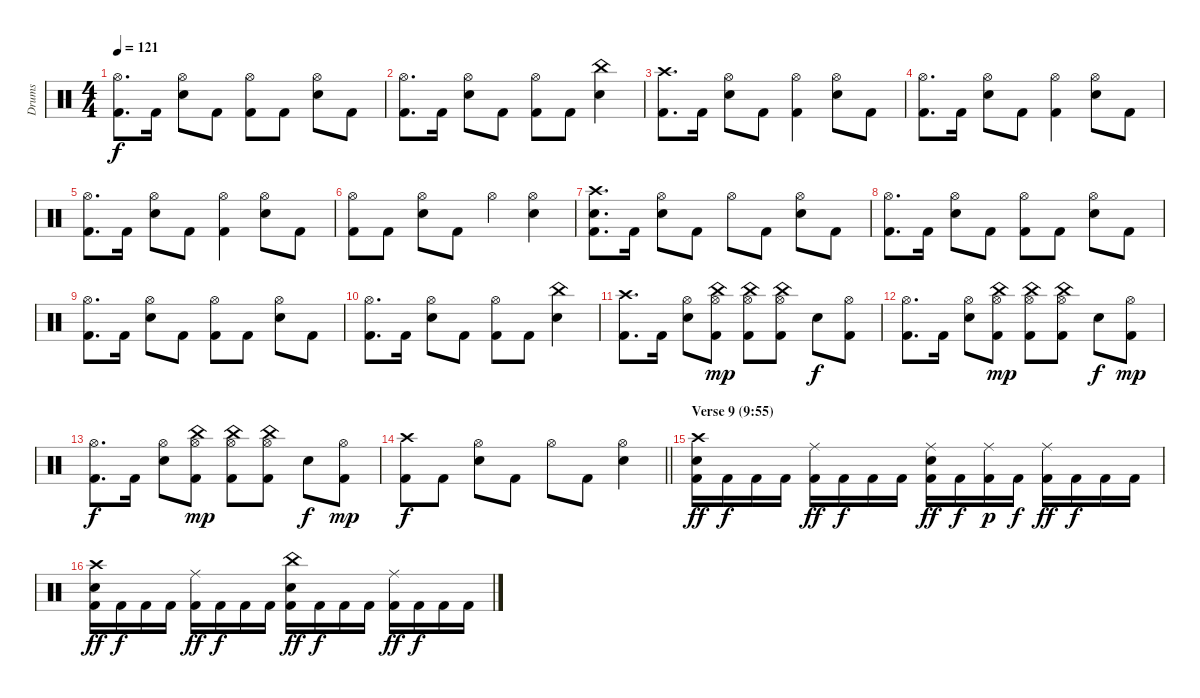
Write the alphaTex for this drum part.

\track ("Drums" "Drums") {instrument percussion}
\staff {score}
\articulation defaults
\ts (4 4)
\tempo 121
\clef neutral
\ks c
("Hi-Hat (open)" "Kick (hit) 2").8{d dy f} "Kick (hit) 2".16 ("Hi-Hat (open)" "Electric Snare (hit)").8 "Kick (hit) 2".8 ("Hi-Hat (open)" "Kick (hit) 2").8 "Kick (hit) 2".8 ("Hi-Hat (open)" "Electric Snare (hit)").8 "Kick (hit) 2".8 |
("Hi-Hat (open)" "Kick (hit) 2").8{d} "Kick (hit) 2".16 ("Hi-Hat (open)" "Electric Snare (hit)").8 "Kick (hit) 2".8 ("Hi-Hat (open)" "Kick (hit) 2").8 "Kick (hit) 2".8 ("China (hit)" "Electric Snare (hit)").4 |
("Crash high (hit)" "Kick (hit) 2").8{d} "Kick (hit) 2".16 ("Hi-Hat (open)" "Electric Snare (hit)").8 "Kick (hit) 2".8 ("Hi-Hat (open)" "Kick (hit) 2").4 ("Hi-Hat (open)" "Electric Snare (hit)").8 "Kick (hit) 2".8 |
("Hi-Hat (open)" "Kick (hit) 2").8{d} "Kick (hit) 2".16 ("Hi-Hat (open)" "Electric Snare (hit)").8 "Kick (hit) 2".8 ("Hi-Hat (open)" "Kick (hit) 2").4 ("Hi-Hat (open)" "Electric Snare (hit)").8 "Kick (hit) 2".8 |
("Hi-Hat (open)" "Kick (hit) 2").8{d} "Kick (hit) 2".16 ("Hi-Hat (open)" "Electric Snare (hit)").8 "Kick (hit) 2".8 ("Hi-Hat (open)" "Kick (hit) 2").4 ("Hi-Hat (open)" "Electric Snare (hit)").8 "Kick (hit) 2".8 |
("Hi-Hat (open)" "Kick (hit) 2").8 "Kick (hit) 2".8 ("Hi-Hat (open)" "Electric Snare (hit)").8 "Kick (hit) 2".8 "Hi-Hat (open)".4 ("Hi-Hat (open)" "Electric Snare (hit)").4 |
("Crash high (hit)" "Electric Snare (hit)" "Kick (hit) 2").8{d} "Kick (hit) 2".16 ("Hi-Hat (open)" "Electric Snare (hit)").8 "Kick (hit) 2".8 "Hi-Hat (open)".8 "Kick (hit) 2".8 ("Hi-Hat (open)" "Electric Snare (hit)").8 "Kick (hit) 2".8 |
("Hi-Hat (open)" "Kick (hit) 2").8{d} "Kick (hit) 2".16 ("Hi-Hat (open)" "Electric Snare (hit)").8 "Kick (hit) 2".8 ("Hi-Hat (open)" "Kick (hit) 2").8 "Kick (hit) 2".8 ("Hi-Hat (open)" "Electric Snare (hit)").8 "Kick (hit) 2".8 |
("Hi-Hat (open)" "Kick (hit) 2").8{d} "Kick (hit) 2".16 ("Hi-Hat (open)" "Electric Snare (hit)").8 "Kick (hit) 2".8 ("Hi-Hat (open)" "Kick (hit) 2").8 "Kick (hit) 2".8 ("Hi-Hat (open)" "Electric Snare (hit)").8 "Kick (hit) 2".8 |
("Hi-Hat (open)" "Kick (hit) 2").8{d} "Kick (hit) 2".16 ("Hi-Hat (open)" "Electric Snare (hit)").8 "Kick (hit) 2".8 ("Hi-Hat (open)" "Kick (hit) 2").8 "Kick (hit) 2".8 ("China (hit)" "Electric Snare (hit)").4 |
("Crash high (hit)" "Kick (hit) 2").8{d} "Kick (hit) 2".16 ("Hi-Hat (open)" "Electric Snare (hit)").8 ("China (hit)" "Hi-Hat (open)" "Kick (hit) 2").8{dy mp} ("China (hit)" "Hi-Hat (open)" "Kick (hit) 2").8 ("China (hit)" "Hi-Hat (open)" "Kick (hit) 2").8 "Electric Snare (hit)".8{dy f} ("Hi-Hat (open)" "Kick (hit) 2").8 |
("Hi-Hat (open)" "Kick (hit) 2").8{d} "Kick (hit) 2".16 ("Hi-Hat (open)" "Electric Snare (hit)").8 ("China (hit)" "Hi-Hat (open)" "Kick (hit) 2").8{dy mp} ("China (hit)" "Hi-Hat (open)" "Kick (hit) 2").8 ("China (hit)" "Hi-Hat (open)" "Kick (hit) 2").8 "Electric Snare (hit)".8{dy f} ("Hi-Hat (open)" "Kick (hit) 2").8{dy mp} |
("Hi-Hat (open)" "Kick (hit) 2").8{d dy f} "Kick (hit) 2".16 ("Hi-Hat (open)" "Electric Snare (hit)").8 ("China (hit)" "Hi-Hat (open)" "Kick (hit) 2").8{dy mp} ("China (hit)" "Hi-Hat (open)" "Kick (hit) 2").8 ("China (hit)" "Hi-Hat (open)" "Kick (hit) 2").8 "Electric Snare (hit)".8{dy f} ("Hi-Hat (open)" "Kick (hit) 2").8{dy mp} |
\barLineRight lightlight
("Crash high (hit)" "Kick (hit) 2").8{dy f} "Kick (hit) 2".8 ("Hi-Hat (open)" "Electric Snare (hit)").8 "Kick (hit) 2".8 "Hi-Hat (open)".8 "Kick (hit) 2".8 ("Hi-Hat (open)" "Electric Snare (hit)").4 |
\section ("" "Verse 9 (9:55)")
("Crash high (hit)" "Electric Snare (hit)" "Kick (hit) 2").16{dy ff} "Kick (hit) 2".16{dy f} "Kick (hit) 2".16 "Kick (hit) 2".16 ("Ride (middle)" "Kick (hit) 2").16{dy ff} "Kick (hit) 2".16{dy f} "Kick (hit) 2".16 "Kick (hit) 2".16 ("Ride (middle)" "Electric Snare (hit)" "Kick (hit) 2").16{dy ff} "Kick (hit) 2".16{dy f} ("Ride (middle)" "Kick (hit) 2").16{dy p} "Kick (hit) 2".16{dy f} ("Ride (middle)" "Kick (hit) 2").16{dy ff} "Kick (hit) 2".16{dy f} "Kick (hit) 2".16 "Kick (hit) 2".16 |
("Crash high (hit)" "Electric Snare (hit)" "Kick (hit) 2").16{dy ff} "Kick (hit) 2".16{dy f} "Kick (hit) 2".16 "Kick (hit) 2".16 ("Ride (middle)" "Kick (hit) 2").16{dy ff} "Kick (hit) 2".16{dy f} "Kick (hit) 2".16 "Kick (hit) 2".16 ("China (hit)" "Electric Snare (hit)" "Kick (hit) 2").16{dy ff} "Kick (hit) 2".16{dy f} "Kick (hit) 2".16 "Kick (hit) 2".16 ("Ride (middle)" "Kick (hit) 2").16{dy ff} "Kick (hit) 2".16{dy f} "Kick (hit) 2".16 "Kick (hit) 2".16
